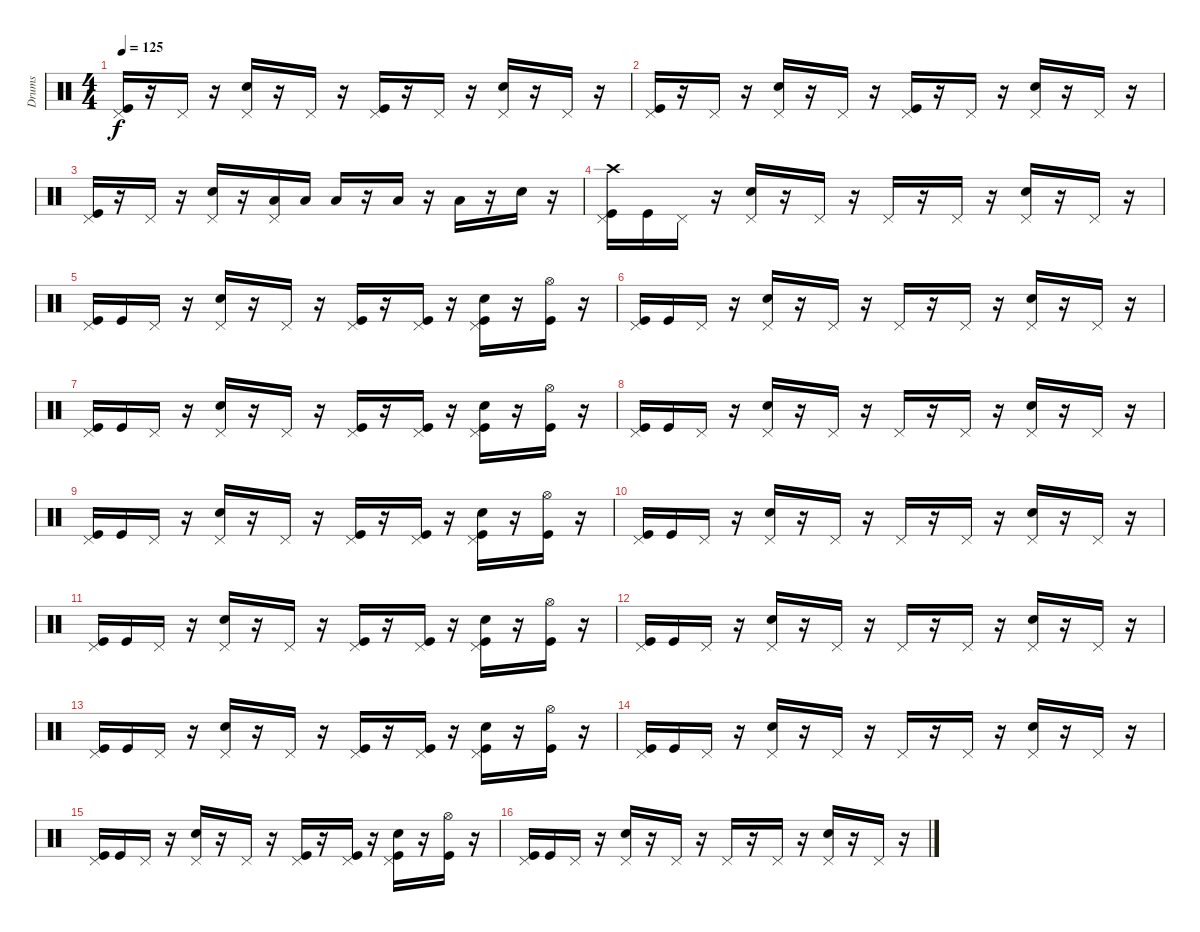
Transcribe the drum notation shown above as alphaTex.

\track ("Drums" "Drums") {instrument percussion}
\staff {score}
\articulation defaults
\ts (4 4)
\tempo 125
\clef neutral
\ks c
("Pedal Hi-Hat (hit)" "Kick (hit)").16{dy f} r.16 "Pedal Hi-Hat (hit)".16 r.16 ("Pedal Hi-Hat (hit)" "Snare (hit) 2").16 r.16 "Pedal Hi-Hat (hit)".16 r.16 ("Pedal Hi-Hat (hit)" "Kick (hit)").16 r.16 "Pedal Hi-Hat (hit)".16 r.16 ("Pedal Hi-Hat (hit)" "Snare (hit) 2").16 r.16 "Pedal Hi-Hat (hit)".16 r.16 |
("Pedal Hi-Hat (hit)" "Kick (hit)").16 r.16 "Pedal Hi-Hat (hit)".16 r.16 ("Pedal Hi-Hat (hit)" "Snare (hit) 2").16 r.16 "Pedal Hi-Hat (hit)".16 r.16 ("Pedal Hi-Hat (hit)" "Kick (hit)").16 r.16 "Pedal Hi-Hat (hit)".16 r.16 ("Pedal Hi-Hat (hit)" "Snare (hit) 2").16 r.16 "Pedal Hi-Hat (hit)".16 r.16 |
("Pedal Hi-Hat (hit)" "Kick (hit)").16 r.16 "Pedal Hi-Hat (hit)".16 r.16 ("Pedal Hi-Hat (hit)" "Snare (hit) 2").16 r.16 ("Pedal Hi-Hat (hit)" "Low Tom (hit)").16 "Low Tom (hit)".16 "Low Tom (hit)".16 r.16 "Low Tom (hit)".16 r.16 "Low Tom (hit)".16 r.16 "Snare (hit) 2".16 r.16 |
("Crash high (hit)" "Pedal Hi-Hat (hit)" "Kick (hit)").16 "Kick (hit)".16 "Pedal Hi-Hat (hit)".16 r.16 ("Pedal Hi-Hat (hit)" "Snare (hit) 2").16 r.16 "Pedal Hi-Hat (hit)".16 r.16 "Pedal Hi-Hat (hit)".16 r.16 "Pedal Hi-Hat (hit)".16 r.16 ("Pedal Hi-Hat (hit)" "Snare (hit) 2").16 r.16 "Pedal Hi-Hat (hit)".16 r.16 |
("Pedal Hi-Hat (hit)" "Kick (hit)").16 "Kick (hit)".16 "Pedal Hi-Hat (hit)".16 r.16 ("Pedal Hi-Hat (hit)" "Snare (hit) 2").16 r.16 "Pedal Hi-Hat (hit)".16 r.16 ("Pedal Hi-Hat (hit)" "Kick (hit)").16 r.16 ("Pedal Hi-Hat (hit)" "Kick (hit)").16 r.16 ("Pedal Hi-Hat (hit)" "Snare (hit) 2" "Kick (hit)").16 r.16 ("Hi-Hat (open)" "Kick (hit)").16 r.16 |
("Pedal Hi-Hat (hit)" "Kick (hit)").16 "Kick (hit)".16 "Pedal Hi-Hat (hit)".16 r.16 ("Pedal Hi-Hat (hit)" "Snare (hit) 2").16 r.16 "Pedal Hi-Hat (hit)".16 r.16 "Pedal Hi-Hat (hit)".16 r.16 "Pedal Hi-Hat (hit)".16 r.16 ("Pedal Hi-Hat (hit)" "Snare (hit) 2").16 r.16 "Pedal Hi-Hat (hit)".16 r.16 |
("Pedal Hi-Hat (hit)" "Kick (hit)").16 "Kick (hit)".16 "Pedal Hi-Hat (hit)".16 r.16 ("Pedal Hi-Hat (hit)" "Snare (hit) 2").16 r.16 "Pedal Hi-Hat (hit)".16 r.16 ("Pedal Hi-Hat (hit)" "Kick (hit)").16 r.16 ("Pedal Hi-Hat (hit)" "Kick (hit)").16 r.16 ("Pedal Hi-Hat (hit)" "Snare (hit) 2" "Kick (hit)").16 r.16 ("Hi-Hat (open)" "Kick (hit)").16 r.16 |
("Pedal Hi-Hat (hit)" "Kick (hit)").16 "Kick (hit)".16 "Pedal Hi-Hat (hit)".16 r.16 ("Pedal Hi-Hat (hit)" "Snare (hit) 2").16 r.16 "Pedal Hi-Hat (hit)".16 r.16 "Pedal Hi-Hat (hit)".16 r.16 "Pedal Hi-Hat (hit)".16 r.16 ("Pedal Hi-Hat (hit)" "Snare (hit) 2").16 r.16 "Pedal Hi-Hat (hit)".16 r.16 |
("Pedal Hi-Hat (hit)" "Kick (hit)").16 "Kick (hit)".16 "Pedal Hi-Hat (hit)".16 r.16 ("Pedal Hi-Hat (hit)" "Snare (hit) 2").16 r.16 "Pedal Hi-Hat (hit)".16 r.16 ("Pedal Hi-Hat (hit)" "Kick (hit)").16 r.16 ("Pedal Hi-Hat (hit)" "Kick (hit)").16 r.16 ("Pedal Hi-Hat (hit)" "Snare (hit) 2" "Kick (hit)").16 r.16 ("Hi-Hat (open)" "Kick (hit)").16 r.16 |
("Pedal Hi-Hat (hit)" "Kick (hit)").16 "Kick (hit)".16 "Pedal Hi-Hat (hit)".16 r.16 ("Pedal Hi-Hat (hit)" "Snare (hit) 2").16 r.16 "Pedal Hi-Hat (hit)".16 r.16 "Pedal Hi-Hat (hit)".16 r.16 "Pedal Hi-Hat (hit)".16 r.16 ("Pedal Hi-Hat (hit)" "Snare (hit) 2").16 r.16 "Pedal Hi-Hat (hit)".16 r.16 |
("Pedal Hi-Hat (hit)" "Kick (hit)").16 "Kick (hit)".16 "Pedal Hi-Hat (hit)".16 r.16 ("Pedal Hi-Hat (hit)" "Snare (hit) 2").16 r.16 "Pedal Hi-Hat (hit)".16 r.16 ("Pedal Hi-Hat (hit)" "Kick (hit)").16 r.16 ("Pedal Hi-Hat (hit)" "Kick (hit)").16 r.16 ("Pedal Hi-Hat (hit)" "Snare (hit) 2" "Kick (hit)").16 r.16 ("Hi-Hat (open)" "Kick (hit)").16 r.16 |
("Pedal Hi-Hat (hit)" "Kick (hit)").16 "Kick (hit)".16 "Pedal Hi-Hat (hit)".16 r.16 ("Pedal Hi-Hat (hit)" "Snare (hit) 2").16 r.16 "Pedal Hi-Hat (hit)".16 r.16 "Pedal Hi-Hat (hit)".16 r.16 "Pedal Hi-Hat (hit)".16 r.16 ("Pedal Hi-Hat (hit)" "Snare (hit) 2").16 r.16 "Pedal Hi-Hat (hit)".16 r.16 |
("Pedal Hi-Hat (hit)" "Kick (hit)").16 "Kick (hit)".16 "Pedal Hi-Hat (hit)".16 r.16 ("Pedal Hi-Hat (hit)" "Snare (hit) 2").16 r.16 "Pedal Hi-Hat (hit)".16 r.16 ("Pedal Hi-Hat (hit)" "Kick (hit)").16 r.16 ("Pedal Hi-Hat (hit)" "Kick (hit)").16 r.16 ("Pedal Hi-Hat (hit)" "Snare (hit) 2" "Kick (hit)").16 r.16 ("Hi-Hat (open)" "Kick (hit)").16 r.16 |
("Pedal Hi-Hat (hit)" "Kick (hit)").16 "Kick (hit)".16 "Pedal Hi-Hat (hit)".16 r.16 ("Pedal Hi-Hat (hit)" "Snare (hit) 2").16 r.16 "Pedal Hi-Hat (hit)".16 r.16 "Pedal Hi-Hat (hit)".16 r.16 "Pedal Hi-Hat (hit)".16 r.16 ("Pedal Hi-Hat (hit)" "Snare (hit) 2").16 r.16 "Pedal Hi-Hat (hit)".16 r.16 |
("Pedal Hi-Hat (hit)" "Kick (hit)").16 "Kick (hit)".16 "Pedal Hi-Hat (hit)".16 r.16 ("Pedal Hi-Hat (hit)" "Snare (hit) 2").16 r.16 "Pedal Hi-Hat (hit)".16 r.16 ("Pedal Hi-Hat (hit)" "Kick (hit)").16 r.16 ("Pedal Hi-Hat (hit)" "Kick (hit)").16 r.16 ("Pedal Hi-Hat (hit)" "Snare (hit) 2" "Kick (hit)").16 r.16 ("Hi-Hat (open)" "Kick (hit)").16 r.16 |
("Pedal Hi-Hat (hit)" "Kick (hit)").16 "Kick (hit)".16 "Pedal Hi-Hat (hit)".16 r.16 ("Pedal Hi-Hat (hit)" "Snare (hit) 2").16 r.16 "Pedal Hi-Hat (hit)".16 r.16 "Pedal Hi-Hat (hit)".16 r.16 "Pedal Hi-Hat (hit)".16 r.16 ("Pedal Hi-Hat (hit)" "Snare (hit) 2").16 r.16 "Pedal Hi-Hat (hit)".16 r.16
